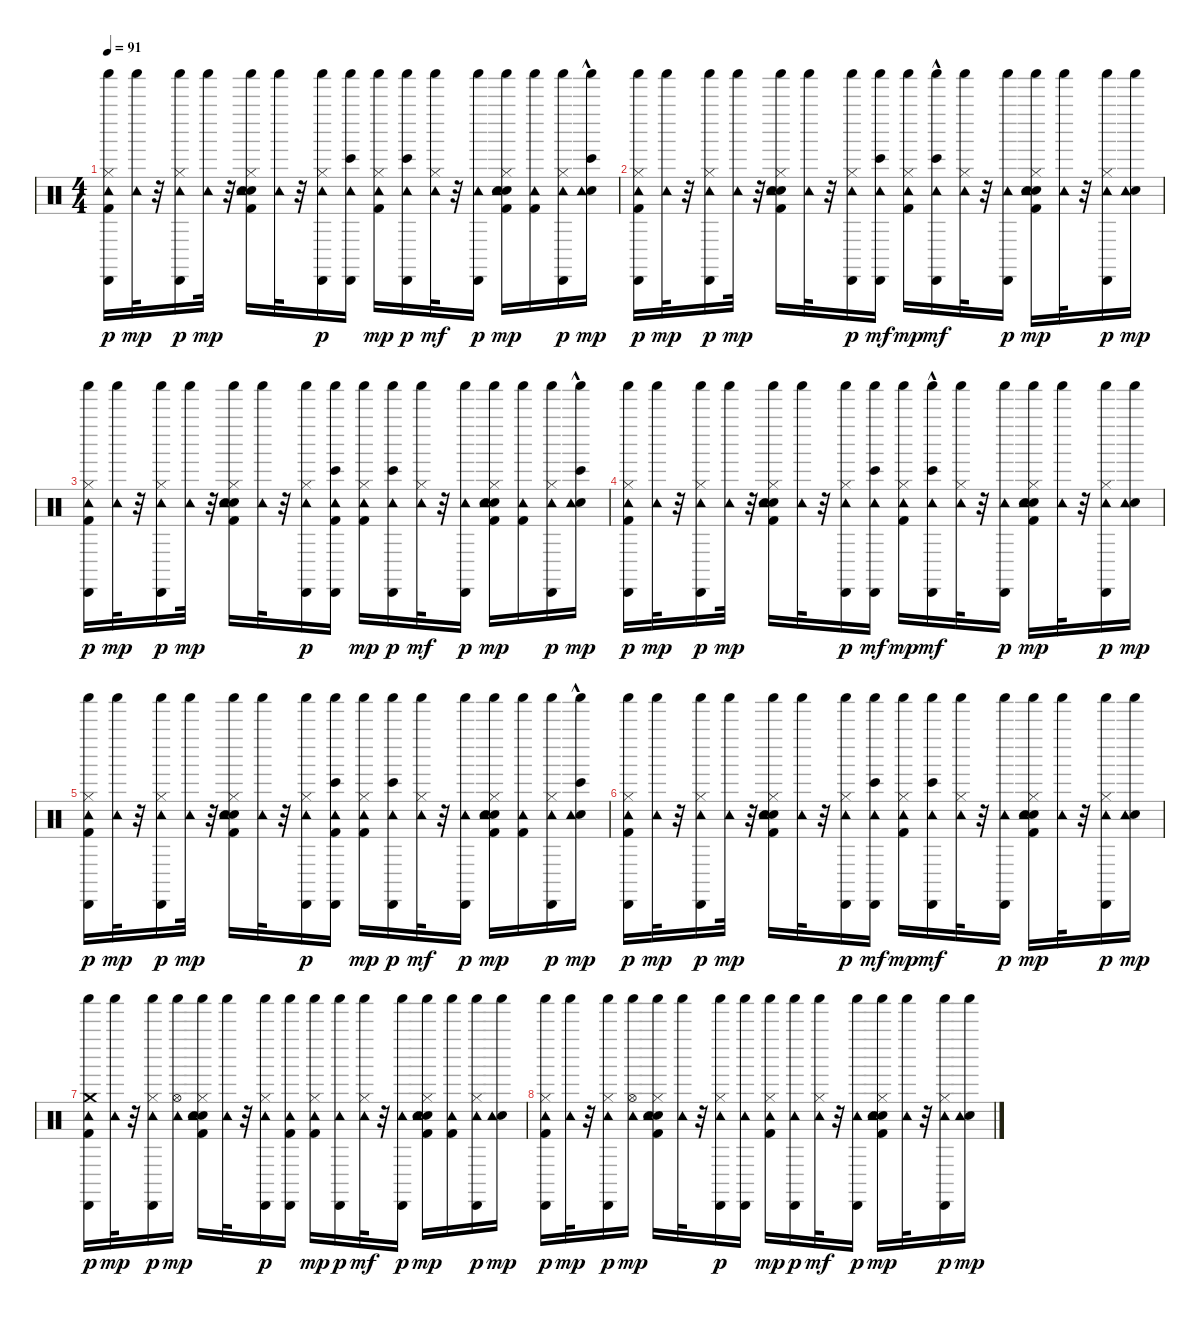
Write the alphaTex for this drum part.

\track "" {instrument percussion}
\staff {score}
\articulation defaults
\ts (4 4)
\tempo 91
\clef neutral
\ks c
("Kick (hit) 2" "Hi-Hat (closed)" "Tambourine (hit)" "Shaker (hit)" "Cabasa (hit)").16{dy p} ("Tambourine (hit)" "Shaker (hit)").32{dy mp} r.32 ("Hi-Hat (closed)" "Tambourine (hit)" "Shaker (hit)" "Cabasa (hit)").16{dy p} ("Tambourine (hit)" "Shaker (hit)").32{dy mp} r.32 ("Kick (hit) 2" "Electric Snare (hit)" "Hi-Hat (closed)" "Hand Clap (hit)" "Tambourine (hit)" "Shaker (hit)").16 ("Tambourine (hit)" "Shaker (hit)").32 r.32 ("Hi-Hat (closed)" "Tambourine (hit)" "Shaker (hit)" "Cabasa (hit)").16{dy p} ("Tambourine (hit)" "Shaker (hit)" "Cabasa (hit)" "Bongo High (hit)").16 ("Kick (hit) 2" "Hi-Hat (closed)" "Tambourine (hit)" "Shaker (hit)").16{dy mp} ("Tambourine (hit)" "Shaker (hit)" "Cabasa (hit)" "Bongo High (hit)").16{dy p} ("Hi-Hat (closed)" "Tambourine (hit)" "Shaker (hit)").32{dy mf} r.32 ("Tambourine (hit)" "Shaker (hit)" "Cabasa (hit)").16{dy p} ("Kick (hit) 2" "Electric Snare (hit)" "Hi-Hat (closed)" "Hand Clap (hit)" "Tambourine (hit)" "Shaker (hit)").16{dy mp} ("Kick (hit) 2" "Tambourine (hit)" "Shaker (hit)").16 ("Hi-Hat (closed)" "Tambourine (hit)" "Shaker (hit)" "Cabasa (hit)").16{dy p} ("Electric Snare (hit)" "Tambourine (hit)" "Shaker (hit)" "Bongo High (hit)"{hac}).16{dy mp} |
("Kick (hit) 2" "Hi-Hat (closed)" "Tambourine (hit)" "Shaker (hit)" "Cabasa (hit)").16{dy p} ("Tambourine (hit)" "Shaker (hit)").32{dy mp} r.32 ("Hi-Hat (closed)" "Tambourine (hit)" "Shaker (hit)" "Cabasa (hit)").16{dy p} ("Tambourine (hit)" "Shaker (hit)").32{dy mp} r.32 ("Kick (hit) 2" "Electric Snare (hit)" "Hi-Hat (closed)" "Hand Clap (hit)" "Tambourine (hit)" "Shaker (hit)").16 ("Tambourine (hit)" "Shaker (hit)").32 r.32 ("Hi-Hat (closed)" "Tambourine (hit)" "Shaker (hit)" "Cabasa (hit)").16{dy p} ("Tambourine (hit)" "Shaker (hit)" "Cabasa (hit)" "Bongo High (hit)").16{dy mf} ("Kick (hit) 2" "Hi-Hat (closed)" "Tambourine (hit)" "Shaker (hit)").16{dy mp} ("Tambourine (hit)" "Shaker (hit)" "Cabasa (hit)" "Bongo High (hit)"{hac}).16{dy mf} ("Hi-Hat (closed)" "Tambourine (hit)" "Shaker (hit)").32 r.32 ("Tambourine (hit)" "Shaker (hit)" "Cabasa (hit)").16{dy p} ("Kick (hit) 2" "Electric Snare (hit)" "Hi-Hat (closed)" "Hand Clap (hit)" "Tambourine (hit)" "Shaker (hit)").16{dy mp} ("Tambourine (hit)" "Shaker (hit)").32 r.32 ("Hi-Hat (closed)" "Tambourine (hit)" "Shaker (hit)" "Cabasa (hit)").16{dy p} ("Electric Snare (hit)" "Tambourine (hit)" "Shaker (hit)").16{dy mp} |
("Kick (hit) 2" "Hi-Hat (closed)" "Tambourine (hit)" "Shaker (hit)" "Cabasa (hit)").16{dy p} ("Tambourine (hit)" "Shaker (hit)").32{dy mp} r.32 ("Hi-Hat (closed)" "Tambourine (hit)" "Shaker (hit)" "Cabasa (hit)").16{dy p} ("Tambourine (hit)" "Shaker (hit)").32{dy mp} r.32 ("Kick (hit) 2" "Electric Snare (hit)" "Hi-Hat (closed)" "Hand Clap (hit)" "Tambourine (hit)" "Shaker (hit)").16 ("Tambourine (hit)" "Shaker (hit)").32 r.32 ("Hi-Hat (closed)" "Tambourine (hit)" "Shaker (hit)" "Cabasa (hit)").16{dy p} ("Kick (hit) 2" "Tambourine (hit)" "Shaker (hit)" "Cabasa (hit)" "Bongo High (hit)").16 ("Kick (hit) 2" "Hi-Hat (closed)" "Tambourine (hit)" "Shaker (hit)").16{dy mp} ("Tambourine (hit)" "Shaker (hit)" "Cabasa (hit)" "Bongo High (hit)").16{dy p} ("Hi-Hat (closed)" "Tambourine (hit)" "Shaker (hit)").32{dy mf} r.32 ("Tambourine (hit)" "Shaker (hit)" "Cabasa (hit)").16{dy p} ("Kick (hit) 2" "Electric Snare (hit)" "Hi-Hat (closed)" "Hand Clap (hit)" "Tambourine (hit)" "Shaker (hit)").16{dy mp} ("Kick (hit) 2" "Tambourine (hit)" "Shaker (hit)").16 ("Hi-Hat (closed)" "Tambourine (hit)" "Shaker (hit)" "Cabasa (hit)").16{dy p} ("Electric Snare (hit)" "Tambourine (hit)" "Shaker (hit)" "Bongo High (hit)"{hac}).16{dy mp} |
("Kick (hit) 2" "Hi-Hat (closed)" "Tambourine (hit)" "Shaker (hit)" "Cabasa (hit)").16{dy p} ("Tambourine (hit)" "Shaker (hit)").32{dy mp} r.32 ("Hi-Hat (closed)" "Tambourine (hit)" "Shaker (hit)" "Cabasa (hit)").16{dy p} ("Tambourine (hit)" "Shaker (hit)").32{dy mp} r.32 ("Kick (hit) 2" "Electric Snare (hit)" "Hi-Hat (closed)" "Hand Clap (hit)" "Tambourine (hit)" "Shaker (hit)").16 ("Tambourine (hit)" "Shaker (hit)").32 r.32 ("Hi-Hat (closed)" "Tambourine (hit)" "Shaker (hit)" "Cabasa (hit)").16{dy p} ("Tambourine (hit)" "Shaker (hit)" "Cabasa (hit)" "Bongo High (hit)").16{dy mf} ("Kick (hit) 2" "Hi-Hat (closed)" "Tambourine (hit)" "Shaker (hit)").16{dy mp} ("Tambourine (hit)" "Shaker (hit)" "Cabasa (hit)" "Bongo High (hit)"{hac}).16{dy mf} ("Hi-Hat (closed)" "Tambourine (hit)" "Shaker (hit)").32 r.32 ("Tambourine (hit)" "Shaker (hit)" "Cabasa (hit)").16{dy p} ("Kick (hit) 2" "Electric Snare (hit)" "Hi-Hat (closed)" "Hand Clap (hit)" "Tambourine (hit)" "Shaker (hit)").16{dy mp} ("Tambourine (hit)" "Shaker (hit)").32 r.32 ("Hi-Hat (closed)" "Tambourine (hit)" "Shaker (hit)" "Cabasa (hit)").16{dy p} ("Electric Snare (hit)" "Tambourine (hit)" "Shaker (hit)").16{dy mp} |
("Kick (hit) 2" "Hi-Hat (closed)" "Tambourine (hit)" "Shaker (hit)" "Cabasa (hit)").16{dy p} ("Tambourine (hit)" "Shaker (hit)").32{dy mp} r.32 ("Hi-Hat (closed)" "Tambourine (hit)" "Shaker (hit)" "Cabasa (hit)").16{dy p} ("Tambourine (hit)" "Shaker (hit)").32{dy mp} r.32 ("Kick (hit) 2" "Electric Snare (hit)" "Hi-Hat (closed)" "Hand Clap (hit)" "Tambourine (hit)" "Shaker (hit)").16 ("Tambourine (hit)" "Shaker (hit)").32 r.32 ("Hi-Hat (closed)" "Tambourine (hit)" "Shaker (hit)" "Cabasa (hit)").16{dy p} ("Kick (hit) 2" "Tambourine (hit)" "Shaker (hit)" "Cabasa (hit)" "Bongo High (hit)").16 ("Kick (hit) 2" "Hi-Hat (closed)" "Tambourine (hit)" "Shaker (hit)").16{dy mp} ("Tambourine (hit)" "Shaker (hit)" "Cabasa (hit)" "Bongo High (hit)").16{dy p} ("Hi-Hat (closed)" "Tambourine (hit)" "Shaker (hit)").32{dy mf} r.32 ("Tambourine (hit)" "Shaker (hit)" "Cabasa (hit)").16{dy p} ("Kick (hit) 2" "Electric Snare (hit)" "Hi-Hat (closed)" "Hand Clap (hit)" "Tambourine (hit)" "Shaker (hit)").16{dy mp} ("Kick (hit) 2" "Tambourine (hit)" "Shaker (hit)").16 ("Hi-Hat (closed)" "Tambourine (hit)" "Shaker (hit)" "Cabasa (hit)").16{dy p} ("Electric Snare (hit)" "Tambourine (hit)" "Shaker (hit)" "Bongo High (hit)"{hac}).16{dy mp} |
("Kick (hit) 2" "Hi-Hat (closed)" "Tambourine (hit)" "Shaker (hit)" "Cabasa (hit)").16{dy p} ("Tambourine (hit)" "Shaker (hit)").32{dy mp} r.32 ("Hi-Hat (closed)" "Tambourine (hit)" "Shaker (hit)" "Cabasa (hit)").16{dy p} ("Tambourine (hit)" "Shaker (hit)").32{dy mp} r.32 ("Kick (hit) 2" "Electric Snare (hit)" "Hi-Hat (closed)" "Hand Clap (hit)" "Tambourine (hit)" "Shaker (hit)").16 ("Tambourine (hit)" "Shaker (hit)").32 r.32 ("Hi-Hat (closed)" "Tambourine (hit)" "Shaker (hit)" "Cabasa (hit)").16{dy p} ("Tambourine (hit)" "Shaker (hit)" "Cabasa (hit)" "Bongo High (hit)").16{dy mf} ("Kick (hit) 2" "Hi-Hat (closed)" "Tambourine (hit)" "Shaker (hit)").16{dy mp} ("Tambourine (hit)" "Shaker (hit)" "Cabasa (hit)" "Bongo High (hit)").16{dy mf} ("Hi-Hat (closed)" "Tambourine (hit)" "Shaker (hit)").32 r.32 ("Tambourine (hit)" "Shaker (hit)" "Cabasa (hit)").16{dy p} ("Kick (hit) 2" "Electric Snare (hit)" "Hi-Hat (closed)" "Hand Clap (hit)" "Tambourine (hit)" "Shaker (hit)").16{dy mp} ("Tambourine (hit)" "Shaker (hit)").32 r.32 ("Hi-Hat (closed)" "Tambourine (hit)" "Shaker (hit)" "Cabasa (hit)").16{dy p} ("Electric Snare (hit)" "Tambourine (hit)" "Shaker (hit)").16{dy mp} |
("Crash medium (hit)" "Kick (hit) 2" "Tambourine (hit)" "Shaker (hit)" "Cabasa (hit)").16{dy p} ("Tambourine (hit)" "Shaker (hit)").32{dy mp} r.32 ("Hi-Hat (closed)" "Tambourine (hit)" "Shaker (hit)" "Cabasa (hit)").16{dy p} ("Hi-Hat (open)" "Tambourine (hit)" "Shaker (hit)").16{dy mp} ("Kick (hit) 2" "Electric Snare (hit)" "Hi-Hat (closed)" "Hand Clap (hit)" "Tambourine (hit)" "Shaker (hit)").16 ("Tambourine (hit)" "Shaker (hit)").32 r.32 ("Hi-Hat (closed)" "Tambourine (hit)" "Shaker (hit)" "Cabasa (hit)").16{dy p} ("Kick (hit) 2" "Tambourine (hit)" "Shaker (hit)" "Cabasa (hit)").16 ("Kick (hit) 2" "Hi-Hat (closed)" "Tambourine (hit)" "Shaker (hit)").16{dy mp} ("Tambourine (hit)" "Shaker (hit)" "Cabasa (hit)").16{dy p} ("Hi-Hat (closed)" "Tambourine (hit)" "Shaker (hit)").32{dy mf} r.32 ("Tambourine (hit)" "Shaker (hit)" "Cabasa (hit)").16{dy p} ("Kick (hit) 2" "Electric Snare (hit)" "Hi-Hat (closed)" "Hand Clap (hit)" "Tambourine (hit)" "Shaker (hit)").16{dy mp} ("Kick (hit) 2" "Tambourine (hit)" "Shaker (hit)").16 ("Hi-Hat (closed)" "Tambourine (hit)" "Shaker (hit)" "Cabasa (hit)").16{dy p} ("Electric Snare (hit)" "Tambourine (hit)" "Shaker (hit)").16{dy mp} |
("Kick (hit) 2" "Hi-Hat (closed)" "Tambourine (hit)" "Shaker (hit)" "Cabasa (hit)").16{dy p} ("Tambourine (hit)" "Shaker (hit)").32{dy mp} r.32 ("Hi-Hat (closed)" "Tambourine (hit)" "Shaker (hit)" "Cabasa (hit)").16{dy p} ("Hi-Hat (open)" "Tambourine (hit)" "Shaker (hit)").16{dy mp} ("Kick (hit) 2" "Electric Snare (hit)" "Hi-Hat (closed)" "Hand Clap (hit)" "Tambourine (hit)" "Shaker (hit)").16 ("Tambourine (hit)" "Shaker (hit)").32 r.32 ("Hi-Hat (closed)" "Tambourine (hit)" "Shaker (hit)" "Cabasa (hit)").16{dy p} ("Tambourine (hit)" "Shaker (hit)" "Cabasa (hit)").16 ("Kick (hit) 2" "Hi-Hat (closed)" "Tambourine (hit)" "Shaker (hit)").16{dy mp} ("Tambourine (hit)" "Shaker (hit)" "Cabasa (hit)").16{dy p} ("Hi-Hat (closed)" "Tambourine (hit)" "Shaker (hit)").32{dy mf} r.32 ("Tambourine (hit)" "Shaker (hit)" "Cabasa (hit)").16{dy p} ("Kick (hit) 2" "Electric Snare (hit)" "Hi-Hat (closed)" "Hand Clap (hit)" "Tambourine (hit)" "Shaker (hit)").16{dy mp} ("Tambourine (hit)" "Shaker (hit)").32 r.32 ("Hi-Hat (closed)" "Tambourine (hit)" "Shaker (hit)" "Cabasa (hit)").16{dy p} ("Electric Snare (hit)" "Tambourine (hit)" "Shaker (hit)").16{dy mp}
